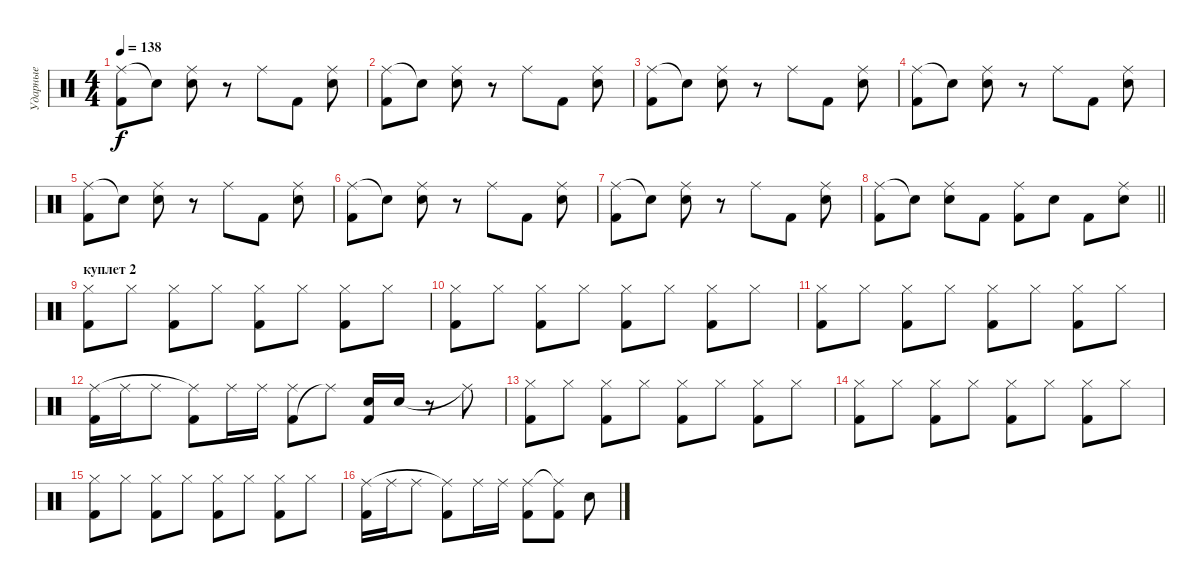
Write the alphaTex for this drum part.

\track ("Ударные" "Ударные") {instrument percussion}
\staff {score}
\articulation defaults
\ts (4 4)
\tempo 138
\clef neutral
\ks c
("Ride (middle)" "Kick (hit) 2").8{dy f} "Snare (hit)"{t}.8 ("Ride (middle)" "Snare (hit) 2").8 r.8 "Ride (middle)".8 "Kick (hit) 2".8 ("Ride (middle)" "Snare (hit) 2").8 |
("Ride (middle)" "Kick (hit) 2").8 "Snare (hit)"{t}.8 ("Ride (middle)" "Snare (hit) 2").8 r.8 "Ride (middle)".8 "Kick (hit) 2".8 ("Ride (middle)" "Snare (hit) 2").8 |
("Ride (middle)" "Kick (hit) 2").8 "Snare (hit)"{t}.8 ("Ride (middle)" "Snare (hit) 2").8 r.8 "Ride (middle)".8 "Kick (hit) 2".8 ("Ride (middle)" "Snare (hit) 2").8 |
("Ride (middle)" "Kick (hit) 2").8 "Snare (hit)"{t}.8 ("Ride (middle)" "Snare (hit) 2").8 r.8 "Ride (middle)".8 "Kick (hit) 2".8 ("Ride (middle)" "Snare (hit) 2").8 |
("Ride (middle)" "Kick (hit) 2").8 "Snare (hit)"{t}.8 ("Ride (middle)" "Snare (hit) 2").8 r.8 "Ride (middle)".8 "Kick (hit) 2".8 ("Ride (middle)" "Snare (hit) 2").8 |
("Ride (middle)" "Kick (hit) 2").8 "Snare (hit)"{t}.8 ("Ride (middle)" "Snare (hit) 2").8 r.8 "Ride (middle)".8 "Kick (hit) 2".8 ("Ride (middle)" "Snare (hit) 2").8 |
("Ride (middle)" "Kick (hit) 2").8 "Snare (hit)"{t}.8 ("Ride (middle)" "Snare (hit) 2").8 r.8 "Ride (middle)".8 "Kick (hit) 2".8 ("Ride (middle)" "Snare (hit) 2").8 |
\barLineRight lightlight
("Ride (middle)" "Kick (hit) 2").8 "Snare (hit)"{t}.8 ("Ride (middle)" "Snare (hit) 2").8 "Kick (hit) 2".8 ("Ride (middle)" "Kick (hit) 2").8 "Snare (hit) 2".8 "Kick (hit) 2".8 ("Ride (middle)" "Snare (hit) 2").8 |
\section ("" "куплет 2")
("Kick (hit) 2" "Hi-Hat (closed)").8 "Hi-Hat (closed)".8 ("Kick (hit) 2" "Hi-Hat (closed)").8 "Hi-Hat (closed)".8 ("Kick (hit) 2" "Hi-Hat (closed)").8 "Hi-Hat (closed)".8 ("Kick (hit) 2" "Hi-Hat (closed)").8 "Hi-Hat (closed)".8 |
("Kick (hit) 2" "Hi-Hat (closed)").8 "Hi-Hat (closed)".8 ("Kick (hit) 2" "Hi-Hat (closed)").8 "Hi-Hat (closed)".8 ("Kick (hit) 2" "Hi-Hat (closed)").8 "Hi-Hat (closed)".8 ("Kick (hit) 2" "Hi-Hat (closed)").8 "Hi-Hat (closed)".8 |
("Kick (hit) 2" "Hi-Hat (closed)").8 "Hi-Hat (closed)".8 ("Kick (hit) 2" "Hi-Hat (closed)").8 "Hi-Hat (closed)".8 ("Kick (hit) 2" "Hi-Hat (closed)").8 "Hi-Hat (closed)".8 ("Kick (hit) 2" "Hi-Hat (closed)").8 "Hi-Hat (closed)".8 |
("Kick (hit) 2" "Ride (middle)").16 "Ride (middle)".16 "Ride (middle)".8 ("Kick (hit) 2" "Ride (middle)"{t}).8 "Ride (middle)".16 "Ride (middle)".16 ("Kick (hit) 2" "Ride (middle)").8 "Ride (middle)"{t}.8 ("Kick (hit) 2" "Snare (hit) 2").16 "Snare (hit) 2".16 r.8 "Ride (middle)"{t}.8 |
("Kick (hit) 2" "Hi-Hat (closed)").8 "Hi-Hat (closed)".8 ("Kick (hit) 2" "Hi-Hat (closed)").8 "Hi-Hat (closed)".8 ("Kick (hit) 2" "Hi-Hat (closed)").8 "Hi-Hat (closed)".8 ("Kick (hit) 2" "Hi-Hat (closed)").8 "Hi-Hat (closed)".8 |
("Kick (hit) 2" "Hi-Hat (closed)").8 "Hi-Hat (closed)".8 ("Kick (hit) 2" "Hi-Hat (closed)").8 "Hi-Hat (closed)".8 ("Kick (hit) 2" "Hi-Hat (closed)").8 "Hi-Hat (closed)".8 ("Kick (hit) 2" "Hi-Hat (closed)").8 "Hi-Hat (closed)".8 |
("Kick (hit) 2" "Hi-Hat (closed)").8 "Hi-Hat (closed)".8 ("Kick (hit) 2" "Hi-Hat (closed)").8 "Hi-Hat (closed)".8 ("Kick (hit) 2" "Hi-Hat (closed)").8 "Hi-Hat (closed)".8 ("Kick (hit) 2" "Hi-Hat (closed)").8 "Hi-Hat (closed)".8 |
("Kick (hit) 2" "Ride (middle)").16 "Ride (middle)".16 "Ride (middle)".8 ("Kick (hit) 2" "Ride (middle)"{t}).8 "Ride (middle)".16 "Ride (middle)".16 ("Kick (hit) 2" "Ride (middle)").8 ("Kick (hit) 2" "Ride (middle)"{t}).8 "Snare (hit) 2".8
